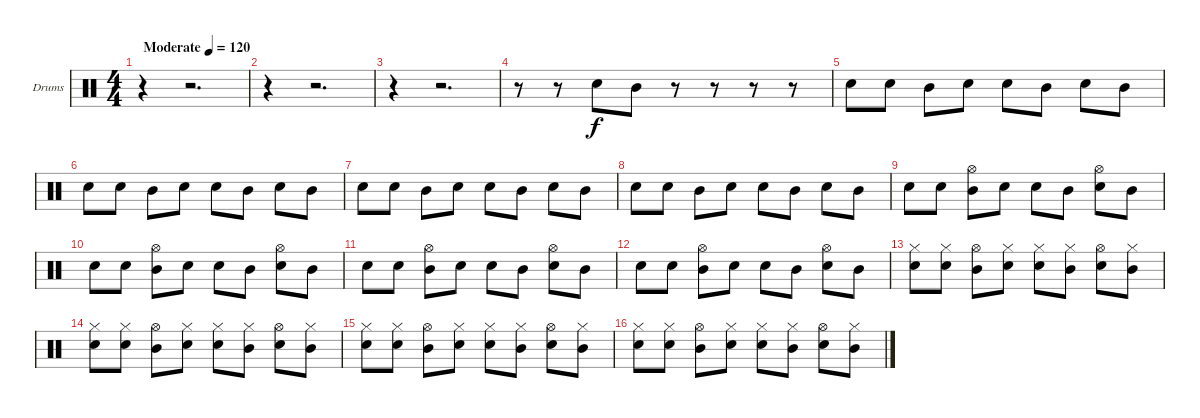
\bracketExtendMode nobrackets
\firstSystemTrackNameOrientation horizontal
\otherSystemsTrackNameOrientation horizontal
\track ("Drumkit" "Drums") {instrument percussion}
\staff {score}
\articulation defaults
\ts (4 4)
\beaming (8 2 2 2 2)
\tempo (120 "Moderate")
\clef neutral
\ks c
r.4{dy f} r.2{d} |
r.4 r.2{d} |
r.4 r.2{d} |
r.8 r.8 "Snare (hit) 2".8 "Mid Tom (hit)".8 r.8 r.8 r.8 r.8 |
"Snare (hit) 2".8 "Snare (hit) 2".8 "Mid Tom (hit)".8 "Snare (hit) 2".8 "Snare (hit) 2".8 "Mid Tom (hit)".8 "Snare (hit) 2".8 "Mid Tom (hit)".8 |
"Snare (hit) 2".8 "Snare (hit) 2".8 "Mid Tom (hit)".8 "Snare (hit) 2".8 "Snare (hit) 2".8 "Mid Tom (hit)".8 "Snare (hit) 2".8 "Mid Tom (hit)".8 |
"Snare (hit) 2".8 "Snare (hit) 2".8 "Mid Tom (hit)".8 "Snare (hit) 2".8 "Snare (hit) 2".8 "Mid Tom (hit)".8 "Snare (hit) 2".8 "Mid Tom (hit)".8 |
"Snare (hit) 2".8 "Snare (hit) 2".8 "Mid Tom (hit)".8 "Snare (hit) 2".8 "Snare (hit) 2".8 "Mid Tom (hit)".8 "Snare (hit) 2".8 "Mid Tom (hit)".8 |
"Snare (hit) 2".8 "Snare (hit) 2".8 ("Mid Tom (hit)" "Hi-Hat (open)").8 "Snare (hit) 2".8 "Snare (hit) 2".8 "Mid Tom (hit)".8 ("Snare (hit) 2" "Hi-Hat (open)").8 "Mid Tom (hit)".8 |
"Snare (hit) 2".8 "Snare (hit) 2".8 ("Mid Tom (hit)" "Hi-Hat (open)").8 "Snare (hit) 2".8 "Snare (hit) 2".8 "Mid Tom (hit)".8 ("Snare (hit) 2" "Hi-Hat (open)").8 "Mid Tom (hit)".8 |
"Snare (hit) 2".8 "Snare (hit) 2".8 ("Mid Tom (hit)" "Hi-Hat (open)").8 "Snare (hit) 2".8 "Snare (hit) 2".8 "Mid Tom (hit)".8 ("Snare (hit) 2" "Hi-Hat (open)").8 "Mid Tom (hit)".8 |
"Snare (hit) 2".8 "Snare (hit) 2".8 ("Mid Tom (hit)" "Hi-Hat (open)").8 "Snare (hit) 2".8 "Snare (hit) 2".8 "Mid Tom (hit)".8 ("Snare (hit) 2" "Hi-Hat (open)").8 "Mid Tom (hit)".8 |
("Snare (hit) 2" "Hi-Hat (closed)").8 ("Snare (hit) 2" "Hi-Hat (closed)").8 ("Mid Tom (hit)" "Hi-Hat (open)").8 ("Snare (hit) 2" "Hi-Hat (closed)").8 ("Snare (hit) 2" "Hi-Hat (closed)").8 ("Mid Tom (hit)" "Hi-Hat (closed)").8 ("Snare (hit) 2" "Hi-Hat (open)").8 ("Mid Tom (hit)" "Hi-Hat (closed)").8 |
("Snare (hit) 2" "Hi-Hat (closed)").8 ("Snare (hit) 2" "Hi-Hat (closed)").8 ("Mid Tom (hit)" "Hi-Hat (open)").8 ("Snare (hit) 2" "Hi-Hat (closed)").8 ("Snare (hit) 2" "Hi-Hat (closed)").8 ("Mid Tom (hit)" "Hi-Hat (closed)").8 ("Snare (hit) 2" "Hi-Hat (open)").8 ("Mid Tom (hit)" "Hi-Hat (closed)").8 |
("Snare (hit) 2" "Hi-Hat (closed)").8 ("Snare (hit) 2" "Hi-Hat (closed)").8 ("Mid Tom (hit)" "Hi-Hat (open)").8 ("Snare (hit) 2" "Hi-Hat (closed)").8 ("Snare (hit) 2" "Hi-Hat (closed)").8 ("Mid Tom (hit)" "Hi-Hat (closed)").8 ("Snare (hit) 2" "Hi-Hat (open)").8 ("Mid Tom (hit)" "Hi-Hat (closed)").8 |
("Snare (hit) 2" "Hi-Hat (closed)").8 ("Snare (hit) 2" "Hi-Hat (closed)").8 ("Mid Tom (hit)" "Hi-Hat (open)").8 ("Snare (hit) 2" "Hi-Hat (closed)").8 ("Snare (hit) 2" "Hi-Hat (closed)").8 ("Mid Tom (hit)" "Hi-Hat (closed)").8 ("Snare (hit) 2" "Hi-Hat (open)").8 ("Mid Tom (hit)" "Hi-Hat (closed)").8
